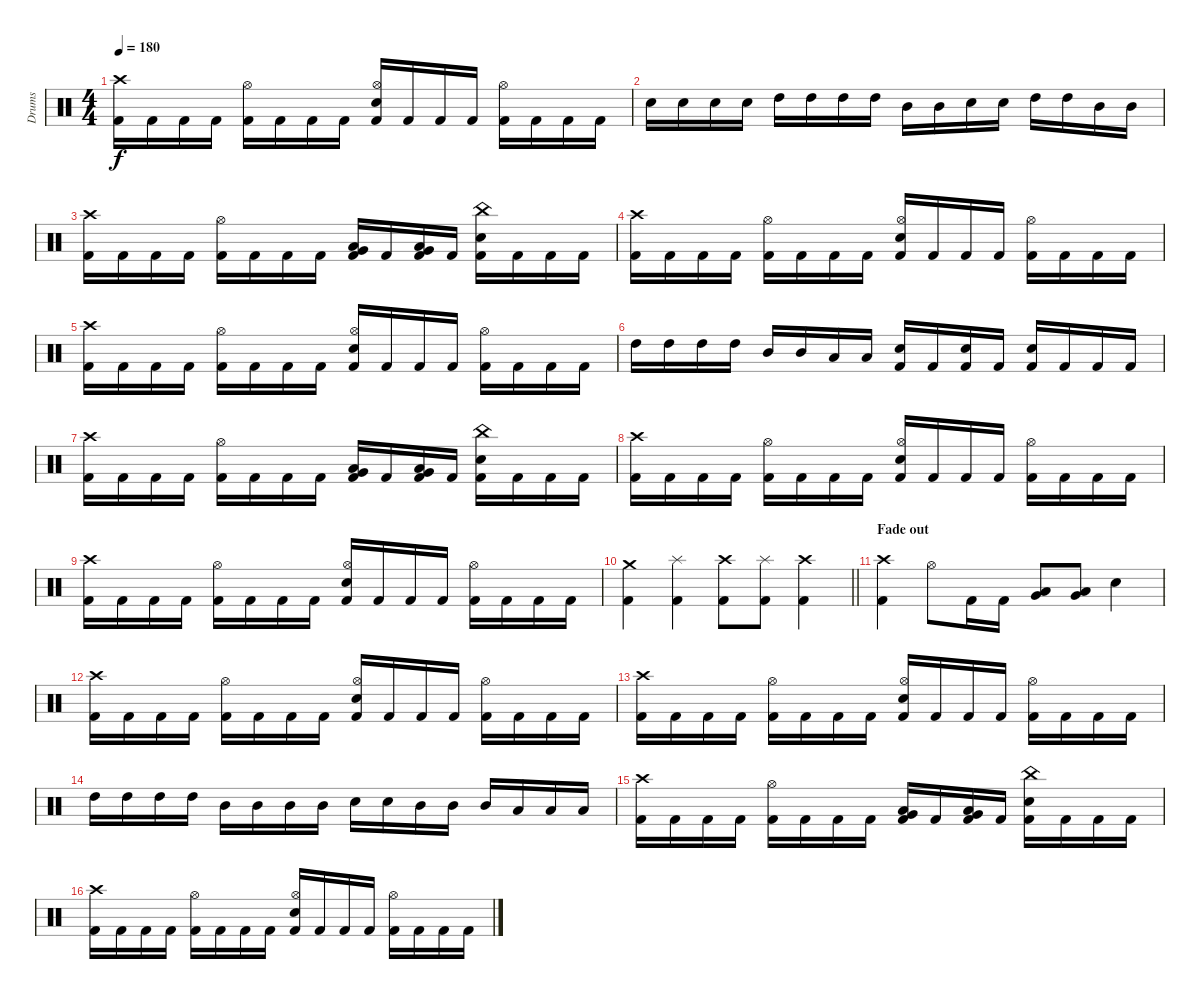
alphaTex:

\track ("Drums" "Drums") {instrument percussion}
\staff {score}
\articulation defaults
\ts (4 4)
\tempo 180
\clef neutral
\ks c
("Crash high (hit)" "Kick (hit) 2").16{dy f} "Kick (hit) 2".16 "Kick (hit) 2".16 "Kick (hit) 2".16 ("Hi-Hat (open)" "Kick (hit) 2").16 "Kick (hit) 2".16 "Kick (hit) 2".16 "Kick (hit) 2".16 ("Hi-Hat (open)" "Electric Snare (hit)" "Kick (hit) 2").16 "Kick (hit) 2".16 "Kick (hit) 2".16 "Kick (hit) 2".16 ("Hi-Hat (open)" "Kick (hit) 2").16 "Kick (hit) 2".16 "Kick (hit) 2".16 "Kick (hit) 2".16 |
"Electric Snare (hit)".16 "Electric Snare (hit)".16 "Electric Snare (hit)".16 "Electric Snare (hit)".16 "High Tom (hit)".16 "High Tom (hit)".16 "High Tom (hit)".16 "High Tom (hit)".16 "Mid Tom (hit)".16 "Mid Tom (hit)".16 "Electric Snare (hit)".16 "Electric Snare (hit)".16 "High Tom (hit)".16 "High Tom (hit)".16 "Mid Tom (hit)".16 "Mid Tom (hit)".16 |
("Crash high (hit)" "Kick (hit) 2").16 "Kick (hit) 2".16 "Kick (hit) 2".16 "Kick (hit) 2".16 ("Hi-Hat (open)" "Kick (hit) 2").16 "Kick (hit) 2".16 "Kick (hit) 2".16 "Kick (hit) 2".16 ("Low Tom (hit)" "Very Low Tom (hit)" "Kick (hit) 2").16 "Kick (hit) 2".16 ("Low Tom (hit)" "Very Low Tom (hit)" "Kick (hit) 2").16 "Kick (hit) 2".16 ("China (hit)" "Electric Snare (hit)" "Kick (hit) 2").16 "Kick (hit) 2".16 "Kick (hit) 2".16 "Kick (hit) 2".16 |
("Crash high (hit)" "Kick (hit) 2").16 "Kick (hit) 2".16 "Kick (hit) 2".16 "Kick (hit) 2".16 ("Hi-Hat (open)" "Kick (hit) 2").16 "Kick (hit) 2".16 "Kick (hit) 2".16 "Kick (hit) 2".16 ("Hi-Hat (open)" "Electric Snare (hit)" "Kick (hit) 2").16 "Kick (hit) 2".16 "Kick (hit) 2".16 "Kick (hit) 2".16 ("Hi-Hat (open)" "Kick (hit) 2").16 "Kick (hit) 2".16 "Kick (hit) 2".16 "Kick (hit) 2".16 |
("Crash high (hit)" "Kick (hit) 2").16 "Kick (hit) 2".16 "Kick (hit) 2".16 "Kick (hit) 2".16 ("Hi-Hat (open)" "Kick (hit) 2").16 "Kick (hit) 2".16 "Kick (hit) 2".16 "Kick (hit) 2".16 ("Hi-Hat (open)" "Electric Snare (hit)" "Kick (hit) 2").16 "Kick (hit) 2".16 "Kick (hit) 2".16 "Kick (hit) 2".16 ("Hi-Hat (open)" "Kick (hit) 2").16 "Kick (hit) 2".16 "Kick (hit) 2".16 "Kick (hit) 2".16 |
"High Tom (hit)".16 "High Tom (hit)".16 "High Tom (hit)".16 "High Tom (hit)".16 "Mid Tom (hit)".16 "Mid Tom (hit)".16 "Low Tom (hit)".16 "Low Tom (hit)".16 ("Electric Snare (hit)" "Kick (hit) 2").16 "Kick (hit) 2".16 ("Electric Snare (hit)" "Kick (hit) 2").16 "Kick (hit) 2".16 ("Electric Snare (hit)" "Kick (hit) 2").16 "Kick (hit) 2".16 "Kick (hit) 2".16 "Kick (hit) 2".16 |
("Crash high (hit)" "Kick (hit) 2").16 "Kick (hit) 2".16 "Kick (hit) 2".16 "Kick (hit) 2".16 ("Hi-Hat (open)" "Kick (hit) 2").16 "Kick (hit) 2".16 "Kick (hit) 2".16 "Kick (hit) 2".16 ("Low Tom (hit)" "Very Low Tom (hit)" "Kick (hit) 2").16 "Kick (hit) 2".16 ("Low Tom (hit)" "Very Low Tom (hit)" "Kick (hit) 2").16 "Kick (hit) 2".16 ("China (hit)" "Electric Snare (hit)" "Kick (hit) 2").16 "Kick (hit) 2".16 "Kick (hit) 2".16 "Kick (hit) 2".16 |
("Crash high (hit)" "Kick (hit) 2").16 "Kick (hit) 2".16 "Kick (hit) 2".16 "Kick (hit) 2".16 ("Hi-Hat (open)" "Kick (hit) 2").16 "Kick (hit) 2".16 "Kick (hit) 2".16 "Kick (hit) 2".16 ("Hi-Hat (open)" "Electric Snare (hit)" "Kick (hit) 2").16 "Kick (hit) 2".16 "Kick (hit) 2".16 "Kick (hit) 2".16 ("Hi-Hat (open)" "Kick (hit) 2").16 "Kick (hit) 2".16 "Kick (hit) 2".16 "Kick (hit) 2".16 |
("Crash high (hit)" "Kick (hit) 2").16 "Kick (hit) 2".16 "Kick (hit) 2".16 "Kick (hit) 2".16 ("Hi-Hat (open)" "Kick (hit) 2").16 "Kick (hit) 2".16 "Kick (hit) 2".16 "Kick (hit) 2".16 ("Hi-Hat (open)" "Electric Snare (hit)" "Kick (hit) 2").16 "Kick (hit) 2".16 "Kick (hit) 2".16 "Kick (hit) 2".16 ("Hi-Hat (open)" "Kick (hit) 2").16 "Kick (hit) 2".16 "Kick (hit) 2".16 "Kick (hit) 2".16 |
\barLineRight lightlight
("Crash medium (hit)" "Kick (hit) 2").4 ("Splash (hit)" "Kick (hit) 2").4 ("Crash high (hit)" "Kick (hit) 2").8 ("Splash (hit)" "Kick (hit) 2").8 ("Crash high (hit)" "Kick (hit) 2").4 |
\section ("" "Fade out")
("Crash high (hit)" "Kick (hit) 2").4{volume 12} "Hi-Hat (open)".8 "Kick (hit) 2".16 "Kick (hit) 2".16 ("Low Tom (hit)" "Very Low Tom (hit)").8 ("Low Tom (hit)" "Very Low Tom (hit)").8 "Electric Snare (hit)".4 |
("Crash high (hit)" "Kick (hit) 2").16 "Kick (hit) 2".16 "Kick (hit) 2".16 "Kick (hit) 2".16 ("Hi-Hat (open)" "Kick (hit) 2").16 "Kick (hit) 2".16 "Kick (hit) 2".16 "Kick (hit) 2".16 ("Hi-Hat (open)" "Electric Snare (hit)" "Kick (hit) 2").16 "Kick (hit) 2".16 "Kick (hit) 2".16 "Kick (hit) 2".16 ("Hi-Hat (open)" "Kick (hit) 2").16 "Kick (hit) 2".16 "Kick (hit) 2".16 "Kick (hit) 2".16 |
("Crash high (hit)" "Kick (hit) 2").16 "Kick (hit) 2".16 "Kick (hit) 2".16 "Kick (hit) 2".16 ("Hi-Hat (open)" "Kick (hit) 2").16 "Kick (hit) 2".16 "Kick (hit) 2".16 "Kick (hit) 2".16 ("Hi-Hat (open)" "Electric Snare (hit)" "Kick (hit) 2").16 "Kick (hit) 2".16 "Kick (hit) 2".16 "Kick (hit) 2".16 ("Hi-Hat (open)" "Kick (hit) 2").16 "Kick (hit) 2".16 "Kick (hit) 2".16 "Kick (hit) 2".16 |
"High Tom (hit)".16 "High Tom (hit)".16 "High Tom (hit)".16 "High Tom (hit)".16 "Mid Tom (hit)".16 "Mid Tom (hit)".16 "Mid Tom (hit)".16 "Mid Tom (hit)".16 "Electric Snare (hit)".16 "Electric Snare (hit)".16 "Mid Tom (hit)".16 "Mid Tom (hit)".16 "Mid Tom (hit)".16 "Low Tom (hit)".16 "Low Tom (hit)".16 "Low Tom (hit)".16 |
("Crash high (hit)" "Kick (hit) 2").16{volume 8} "Kick (hit) 2".16 "Kick (hit) 2".16 "Kick (hit) 2".16 ("Hi-Hat (open)" "Kick (hit) 2").16 "Kick (hit) 2".16 "Kick (hit) 2".16 "Kick (hit) 2".16 ("Low Tom (hit)" "Very Low Tom (hit)" "Kick (hit) 2").16 "Kick (hit) 2".16 ("Low Tom (hit)" "Very Low Tom (hit)" "Kick (hit) 2").16 "Kick (hit) 2".16 ("China (hit)" "Electric Snare (hit)" "Kick (hit) 2").16 "Kick (hit) 2".16 "Kick (hit) 2".16 "Kick (hit) 2".16 |
("Crash high (hit)" "Kick (hit) 2").16 "Kick (hit) 2".16 "Kick (hit) 2".16 "Kick (hit) 2".16 ("Hi-Hat (open)" "Kick (hit) 2").16 "Kick (hit) 2".16 "Kick (hit) 2".16 "Kick (hit) 2".16 ("Hi-Hat (open)" "Electric Snare (hit)" "Kick (hit) 2").16 "Kick (hit) 2".16 "Kick (hit) 2".16 "Kick (hit) 2".16 ("Hi-Hat (open)" "Kick (hit) 2").16 "Kick (hit) 2".16 "Kick (hit) 2".16 "Kick (hit) 2".16
